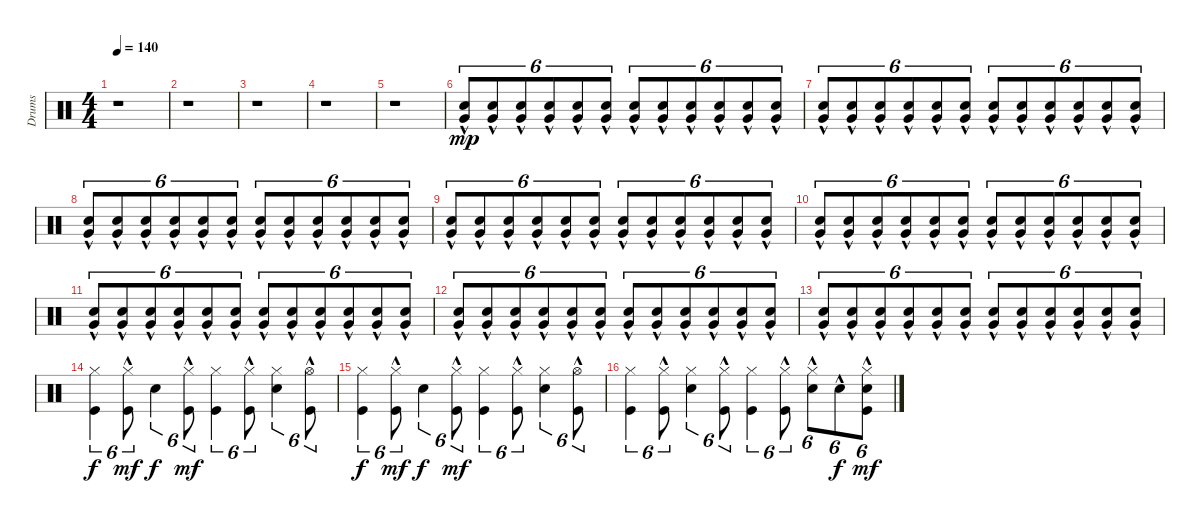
\track ("Drums" "Drums") {instrument percussion}
\staff {score}
\articulation defaults
\ts (4 4)
\tempo 140
\clef neutral
\ks c
r.1{dy mp} |
r.1 |
r.1 |
r.1 |
r.1 |
("Electric Snare (hit)"{hac} "Very Low Tom (hit)"{hac}).8{tu (6 4)} ("Electric Snare (hit)"{hac} "Very Low Tom (hit)"{hac}).8{tu (6 4)} ("Electric Snare (hit)"{hac} "Very Low Tom (hit)"{hac}).8{tu (6 4)} ("Electric Snare (hit)"{hac} "Very Low Tom (hit)"{hac}).8{tu (6 4)} ("Electric Snare (hit)"{hac} "Very Low Tom (hit)"{hac}).8{tu (6 4)} ("Electric Snare (hit)"{hac} "Very Low Tom (hit)"{hac}).8{tu (6 4)} ("Electric Snare (hit)"{hac} "Very Low Tom (hit)"{hac}).8{tu (6 4)} ("Electric Snare (hit)"{hac} "Very Low Tom (hit)"{hac}).8{tu (6 4)} ("Electric Snare (hit)"{hac} "Very Low Tom (hit)"{hac}).8{tu (6 4)} ("Electric Snare (hit)"{hac} "Very Low Tom (hit)"{hac}).8{tu (6 4)} ("Electric Snare (hit)"{hac} "Very Low Tom (hit)"{hac}).8{tu (6 4)} ("Electric Snare (hit)"{hac} "Very Low Tom (hit)"{hac}).8{tu (6 4)} |
("Electric Snare (hit)"{hac} "Very Low Tom (hit)"{hac}).8{tu (6 4)} ("Electric Snare (hit)"{hac} "Very Low Tom (hit)"{hac}).8{tu (6 4)} ("Electric Snare (hit)"{hac} "Very Low Tom (hit)"{hac}).8{tu (6 4)} ("Electric Snare (hit)"{hac} "Very Low Tom (hit)"{hac}).8{tu (6 4)} ("Electric Snare (hit)"{hac} "Very Low Tom (hit)"{hac}).8{tu (6 4)} ("Electric Snare (hit)"{hac} "Very Low Tom (hit)"{hac}).8{tu (6 4)} ("Electric Snare (hit)"{hac} "Very Low Tom (hit)"{hac}).8{tu (6 4)} ("Electric Snare (hit)"{hac} "Very Low Tom (hit)"{hac}).8{tu (6 4)} ("Electric Snare (hit)"{hac} "Very Low Tom (hit)"{hac}).8{tu (6 4)} ("Electric Snare (hit)"{hac} "Very Low Tom (hit)"{hac}).8{tu (6 4)} ("Electric Snare (hit)"{hac} "Very Low Tom (hit)"{hac}).8{tu (6 4)} ("Electric Snare (hit)"{hac} "Very Low Tom (hit)"{hac}).8{tu (6 4)} |
("Electric Snare (hit)"{hac} "Very Low Tom (hit)"{hac}).8{tu (6 4)} ("Electric Snare (hit)"{hac} "Very Low Tom (hit)"{hac}).8{tu (6 4)} ("Electric Snare (hit)"{hac} "Very Low Tom (hit)"{hac}).8{tu (6 4)} ("Electric Snare (hit)"{hac} "Very Low Tom (hit)"{hac}).8{tu (6 4)} ("Electric Snare (hit)"{hac} "Very Low Tom (hit)"{hac}).8{tu (6 4)} ("Electric Snare (hit)"{hac} "Very Low Tom (hit)"{hac}).8{tu (6 4)} ("Electric Snare (hit)"{hac} "Very Low Tom (hit)"{hac}).8{tu (6 4)} ("Electric Snare (hit)"{hac} "Very Low Tom (hit)"{hac}).8{tu (6 4)} ("Electric Snare (hit)"{hac} "Very Low Tom (hit)"{hac}).8{tu (6 4)} ("Electric Snare (hit)"{hac} "Very Low Tom (hit)"{hac}).8{tu (6 4)} ("Electric Snare (hit)"{hac} "Very Low Tom (hit)"{hac}).8{tu (6 4)} ("Electric Snare (hit)"{hac} "Very Low Tom (hit)"{hac}).8{tu (6 4)} |
("Electric Snare (hit)"{hac} "Very Low Tom (hit)"{hac}).8{tu (6 4)} ("Electric Snare (hit)"{hac} "Very Low Tom (hit)"{hac}).8{tu (6 4)} ("Electric Snare (hit)"{hac} "Very Low Tom (hit)"{hac}).8{tu (6 4)} ("Electric Snare (hit)"{hac} "Very Low Tom (hit)"{hac}).8{tu (6 4)} ("Electric Snare (hit)"{hac} "Very Low Tom (hit)"{hac}).8{tu (6 4)} ("Electric Snare (hit)"{hac} "Very Low Tom (hit)"{hac}).8{tu (6 4)} ("Electric Snare (hit)"{hac} "Very Low Tom (hit)"{hac}).8{tu (6 4)} ("Electric Snare (hit)"{hac} "Very Low Tom (hit)"{hac}).8{tu (6 4)} ("Electric Snare (hit)"{hac} "Very Low Tom (hit)"{hac}).8{tu (6 4)} ("Electric Snare (hit)"{hac} "Very Low Tom (hit)"{hac}).8{tu (6 4)} ("Electric Snare (hit)"{hac} "Very Low Tom (hit)"{hac}).8{tu (6 4)} ("Electric Snare (hit)"{hac} "Very Low Tom (hit)"{hac}).8{tu (6 4)} |
("Electric Snare (hit)"{hac} "Very Low Tom (hit)"{hac}).8{tu (6 4)} ("Electric Snare (hit)"{hac} "Very Low Tom (hit)"{hac}).8{tu (6 4)} ("Electric Snare (hit)"{hac} "Very Low Tom (hit)"{hac}).8{tu (6 4)} ("Electric Snare (hit)"{hac} "Very Low Tom (hit)"{hac}).8{tu (6 4)} ("Electric Snare (hit)"{hac} "Very Low Tom (hit)"{hac}).8{tu (6 4)} ("Electric Snare (hit)"{hac} "Very Low Tom (hit)"{hac}).8{tu (6 4)} ("Electric Snare (hit)"{hac} "Very Low Tom (hit)"{hac}).8{tu (6 4)} ("Electric Snare (hit)"{hac} "Very Low Tom (hit)"{hac}).8{tu (6 4)} ("Electric Snare (hit)"{hac} "Very Low Tom (hit)"{hac}).8{tu (6 4)} ("Electric Snare (hit)"{hac} "Very Low Tom (hit)"{hac}).8{tu (6 4)} ("Electric Snare (hit)"{hac} "Very Low Tom (hit)"{hac}).8{tu (6 4)} ("Electric Snare (hit)"{hac} "Very Low Tom (hit)"{hac}).8{tu (6 4)} |
("Electric Snare (hit)"{hac} "Very Low Tom (hit)"{hac}).8{tu (6 4)} ("Electric Snare (hit)"{hac} "Very Low Tom (hit)"{hac}).8{tu (6 4)} ("Electric Snare (hit)"{hac} "Very Low Tom (hit)"{hac}).8{tu (6 4)} ("Electric Snare (hit)"{hac} "Very Low Tom (hit)"{hac}).8{tu (6 4)} ("Electric Snare (hit)"{hac} "Very Low Tom (hit)"{hac}).8{tu (6 4)} ("Electric Snare (hit)"{hac} "Very Low Tom (hit)"{hac}).8{tu (6 4)} ("Electric Snare (hit)"{hac} "Very Low Tom (hit)"{hac}).8{tu (6 4)} ("Electric Snare (hit)"{hac} "Very Low Tom (hit)"{hac}).8{tu (6 4)} ("Electric Snare (hit)"{hac} "Very Low Tom (hit)"{hac}).8{tu (6 4)} ("Electric Snare (hit)"{hac} "Very Low Tom (hit)"{hac}).8{tu (6 4)} ("Electric Snare (hit)"{hac} "Very Low Tom (hit)"{hac}).8{tu (6 4)} ("Electric Snare (hit)"{hac} "Very Low Tom (hit)"{hac}).8{tu (6 4)} |
("Electric Snare (hit)"{hac} "Very Low Tom (hit)"{hac}).8{tu (6 4)} ("Electric Snare (hit)"{hac} "Very Low Tom (hit)"{hac}).8{tu (6 4)} ("Electric Snare (hit)"{hac} "Very Low Tom (hit)"{hac}).8{tu (6 4)} ("Electric Snare (hit)"{hac} "Very Low Tom (hit)"{hac}).8{tu (6 4)} ("Electric Snare (hit)"{hac} "Very Low Tom (hit)"{hac}).8{tu (6 4)} ("Electric Snare (hit)"{hac} "Very Low Tom (hit)"{hac}).8{tu (6 4)} ("Electric Snare (hit)"{hac} "Very Low Tom (hit)"{hac}).8{tu (6 4)} ("Electric Snare (hit)"{hac} "Very Low Tom (hit)"{hac}).8{tu (6 4)} ("Electric Snare (hit)"{hac} "Very Low Tom (hit)"{hac}).8{tu (6 4)} ("Electric Snare (hit)"{hac} "Very Low Tom (hit)"{hac}).8{tu (6 4)} ("Electric Snare (hit)"{hac} "Very Low Tom (hit)"{hac}).8{tu (6 4)} ("Electric Snare (hit)"{hac} "Very Low Tom (hit)"{hac}).8{tu (6 4)} |
("Electric Snare (hit)"{hac} "Very Low Tom (hit)"{hac}).8{tu (6 4)} ("Electric Snare (hit)"{hac} "Very Low Tom (hit)"{hac}).8{tu (6 4)} ("Electric Snare (hit)"{hac} "Very Low Tom (hit)"{hac}).8{tu (6 4)} ("Electric Snare (hit)"{hac} "Very Low Tom (hit)"{hac}).8{tu (6 4)} ("Electric Snare (hit)"{hac} "Very Low Tom (hit)"{hac}).8{tu (6 4)} ("Electric Snare (hit)"{hac} "Very Low Tom (hit)"{hac}).8{tu (6 4)} ("Electric Snare (hit)"{hac} "Very Low Tom (hit)"{hac}).8{tu (6 4)} ("Electric Snare (hit)"{hac} "Very Low Tom (hit)"{hac}).8{tu (6 4)} ("Electric Snare (hit)"{hac} "Very Low Tom (hit)"{hac}).8{tu (6 4)} ("Electric Snare (hit)"{hac} "Very Low Tom (hit)"{hac}).8{tu (6 4)} ("Electric Snare (hit)"{hac} "Very Low Tom (hit)"{hac}).8{tu (6 4)} ("Electric Snare (hit)"{hac} "Very Low Tom (hit)"{hac}).8{tu (6 4)} |
("Kick (hit)" "Hi-Hat (closed)").4{tu (6 4) dy f} ("Kick (hit)"{hac} "Hi-Hat (closed)"{hac}).8{tu (6 4) dy mf} "Electric Snare (hit)".4{tu (6 4) dy f} ("Kick (hit)"{hac} "Hi-Hat (closed)"{hac}).8{tu (6 4) dy mf} ("Kick (hit)" "Hi-Hat (closed)").4{tu (6 4)} ("Kick (hit)"{hac} "Hi-Hat (closed)"{hac}).8{tu (6 4)} ("Electric Snare (hit)" "Hi-Hat (closed)").4{tu (6 4)} ("Kick (hit)"{hac} "Hi-Hat (open)"{hac}).8{tu (6 4)} |
("Kick (hit)" "Hi-Hat (closed)").4{tu (6 4) dy f} ("Kick (hit)"{hac} "Hi-Hat (closed)"{hac}).8{tu (6 4) dy mf} "Electric Snare (hit)".4{tu (6 4) dy f} ("Kick (hit)"{hac} "Hi-Hat (closed)"{hac}).8{tu (6 4) dy mf} ("Kick (hit)" "Hi-Hat (closed)").4{tu (6 4)} ("Kick (hit)"{hac} "Hi-Hat (closed)"{hac}).8{tu (6 4)} ("Electric Snare (hit)" "Hi-Hat (closed)").4{tu (6 4)} ("Kick (hit)"{hac} "Hi-Hat (open)"{hac}).8{tu (6 4)} |
("Kick (hit)" "Hi-Hat (closed)").4{tu (6 4)} ("Kick (hit)"{hac} "Hi-Hat (closed)"{hac}).8{tu (6 4)} ("Electric Snare (hit)" "Hi-Hat (closed)").4{tu (6 4)} ("Kick (hit)"{hac} "Hi-Hat (closed)"{hac}).8{tu (6 4)} ("Kick (hit)" "Hi-Hat (closed)").4{tu (6 4)} ("Kick (hit)"{hac} "Hi-Hat (closed)"{hac}).8{tu (6 4)} ("Electric Snare (hit)"{hac} "Hi-Hat (closed)"{hac}).8{tu (6 4)} "Electric Snare (hit)"{hac}.8{tu (6 4) dy f} ("Kick (hit)"{hac} "Snare (hit) 2"{hac} "Hi-Hat (closed)"{hac}).8{tu (6 4) dy mf}
